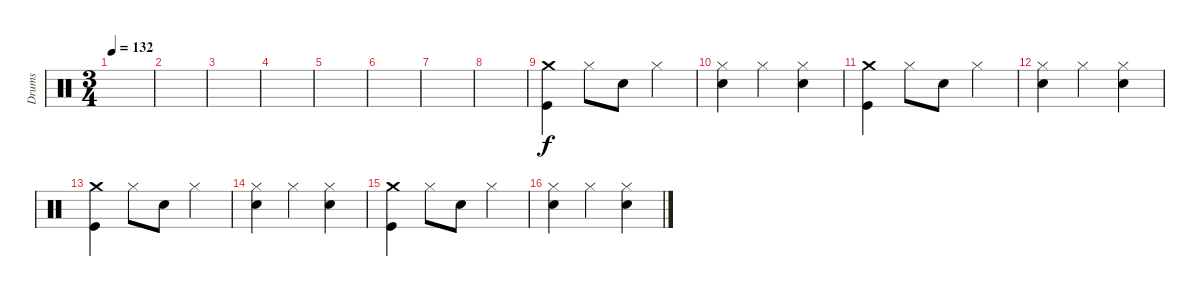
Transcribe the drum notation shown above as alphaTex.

\track ("Drums" "Drums") {instrument percussion}
\staff {score}
\articulation defaults
\ts (3 4)
\tempo 132
\clef neutral
\ks c
|
|
|
|
|
|
|
|
("Crash medium (hit)" "Kick (hit)").4 "Hi-Hat (closed)".8 "Snare (hit) 2".8 "Hi-Hat (closed)".4 |
("Hi-Hat (closed)" "Snare (hit) 2").4 "Hi-Hat (closed)".4 ("Hi-Hat (closed)" "Snare (hit) 2").4 |
("Crash medium (hit)" "Kick (hit)").4 "Hi-Hat (closed)".8 "Snare (hit) 2".8 "Hi-Hat (closed)".4 |
("Hi-Hat (closed)" "Snare (hit) 2").4 "Hi-Hat (closed)".4 ("Hi-Hat (closed)" "Snare (hit) 2").4 |
("Crash medium (hit)" "Kick (hit)").4 "Hi-Hat (closed)".8 "Snare (hit) 2".8 "Hi-Hat (closed)".4 |
("Hi-Hat (closed)" "Snare (hit) 2").4 "Hi-Hat (closed)".4 ("Hi-Hat (closed)" "Snare (hit) 2").4 |
("Crash medium (hit)" "Kick (hit)").4 "Hi-Hat (closed)".8 "Snare (hit) 2".8 "Hi-Hat (closed)".4 |
("Hi-Hat (closed)" "Snare (hit) 2").4 "Hi-Hat (closed)".4 ("Hi-Hat (closed)" "Snare (hit) 2").4
